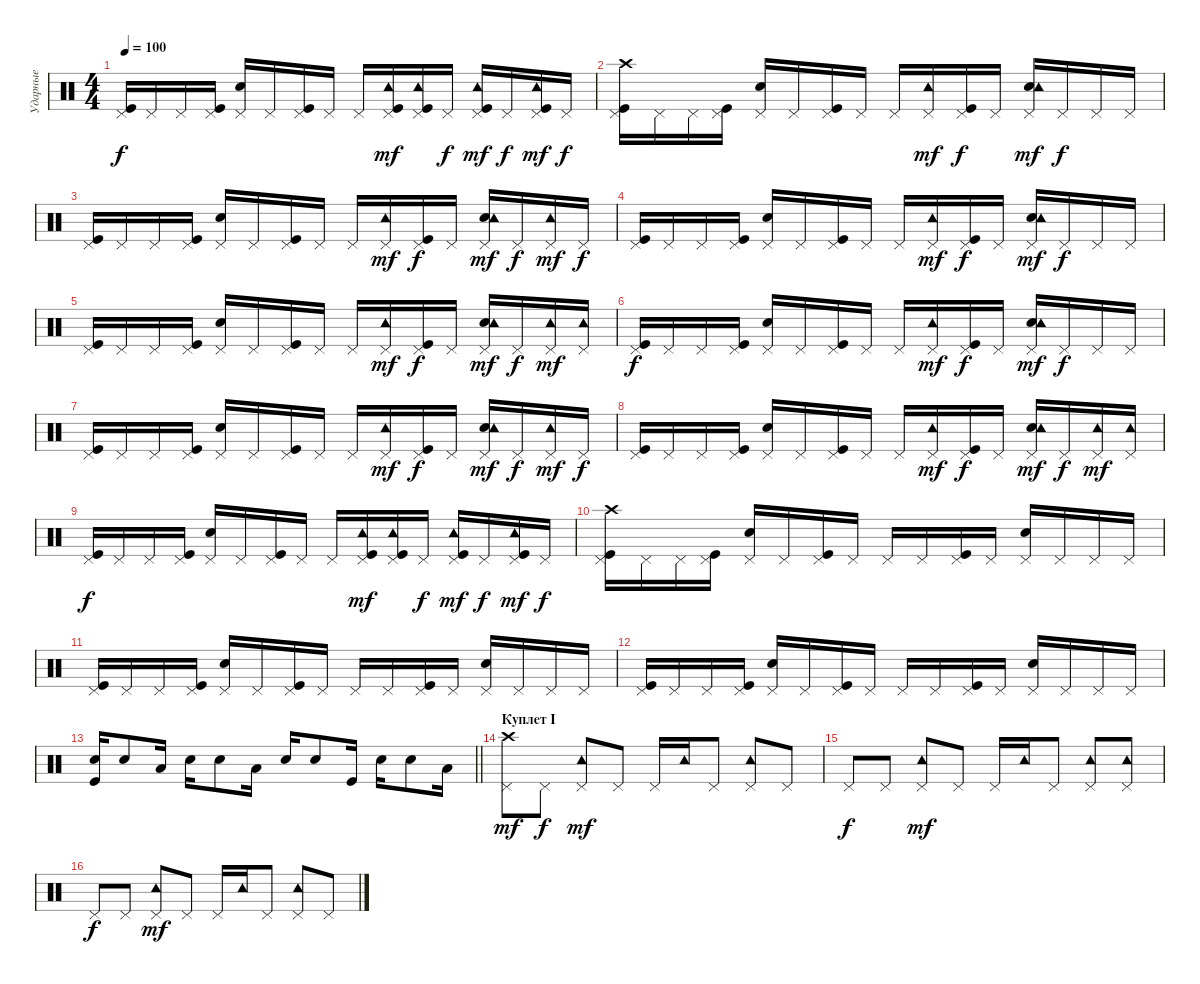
\track ("Ударные" "Ударные") {instrument percussion}
\staff {score}
\articulation defaults
\ts (4 4)
\tempo 100
\clef neutral
\ks c
("Kick (hit)" "Pedal Hi-Hat (hit)").16{dy f} "Pedal Hi-Hat (hit)".16 "Pedal Hi-Hat (hit)".16 ("Kick (hit)" "Pedal Hi-Hat (hit)").16 ("Pedal Hi-Hat (hit)" "Electric Snare (hit)").16 "Pedal Hi-Hat (hit)".16 ("Kick (hit)" "Pedal Hi-Hat (hit)").16 "Pedal Hi-Hat (hit)".16 "Pedal Hi-Hat (hit)".16 ("Kick (hit)" "Pedal Hi-Hat (hit)" "Tambourine (hit)").16{dy mf} ("Kick (hit)" "Pedal Hi-Hat (hit)" "Tambourine (hit)").16 "Pedal Hi-Hat (hit)".16{dy f} ("Kick (hit)" "Pedal Hi-Hat (hit)" "Tambourine (hit)").16{dy mf} "Pedal Hi-Hat (hit)".16{dy f} ("Kick (hit)" "Pedal Hi-Hat (hit)" "Tambourine (hit)").16{dy mf} "Pedal Hi-Hat (hit)".16{dy f} |
("Kick (hit)" "Pedal Hi-Hat (hit)" "Crash high (hit)").16 "Pedal Hi-Hat (hit)".16 "Pedal Hi-Hat (hit)".16 ("Kick (hit)" "Pedal Hi-Hat (hit)").16 ("Pedal Hi-Hat (hit)" "Electric Snare (hit)").16 "Pedal Hi-Hat (hit)".16 ("Kick (hit)" "Pedal Hi-Hat (hit)").16 "Pedal Hi-Hat (hit)".16 "Pedal Hi-Hat (hit)".16 ("Pedal Hi-Hat (hit)" "Tambourine (hit)").16{dy mf} ("Kick (hit)" "Pedal Hi-Hat (hit)").16{dy f} "Pedal Hi-Hat (hit)".16 ("Pedal Hi-Hat (hit)" "Electric Snare (hit)" "Tambourine (hit)").16{dy mf} "Pedal Hi-Hat (hit)".16{dy f} "Pedal Hi-Hat (hit)".16 "Pedal Hi-Hat (hit)".16 |
("Kick (hit)" "Pedal Hi-Hat (hit)").16 "Pedal Hi-Hat (hit)".16 "Pedal Hi-Hat (hit)".16 ("Kick (hit)" "Pedal Hi-Hat (hit)").16 ("Pedal Hi-Hat (hit)" "Electric Snare (hit)").16 "Pedal Hi-Hat (hit)".16 ("Kick (hit)" "Pedal Hi-Hat (hit)").16 "Pedal Hi-Hat (hit)".16 "Pedal Hi-Hat (hit)".16 ("Pedal Hi-Hat (hit)" "Tambourine (hit)").16{dy mf} ("Kick (hit)" "Pedal Hi-Hat (hit)").16{dy f} "Pedal Hi-Hat (hit)".16 ("Pedal Hi-Hat (hit)" "Electric Snare (hit)" "Tambourine (hit)").16{dy mf} "Pedal Hi-Hat (hit)".16{dy f} ("Pedal Hi-Hat (hit)" "Tambourine (hit)").16{dy mf} "Pedal Hi-Hat (hit)".16{dy f} |
("Kick (hit)" "Pedal Hi-Hat (hit)").16 "Pedal Hi-Hat (hit)".16 "Pedal Hi-Hat (hit)".16 ("Kick (hit)" "Pedal Hi-Hat (hit)").16 ("Pedal Hi-Hat (hit)" "Electric Snare (hit)").16 "Pedal Hi-Hat (hit)".16 ("Kick (hit)" "Pedal Hi-Hat (hit)").16 "Pedal Hi-Hat (hit)".16 "Pedal Hi-Hat (hit)".16 ("Pedal Hi-Hat (hit)" "Tambourine (hit)").16{dy mf} ("Kick (hit)" "Pedal Hi-Hat (hit)").16{dy f} "Pedal Hi-Hat (hit)".16 ("Pedal Hi-Hat (hit)" "Electric Snare (hit)" "Tambourine (hit)").16{dy mf} "Pedal Hi-Hat (hit)".16{dy f} "Pedal Hi-Hat (hit)".16 "Pedal Hi-Hat (hit)".16 |
("Kick (hit)" "Pedal Hi-Hat (hit)").16 "Pedal Hi-Hat (hit)".16 "Pedal Hi-Hat (hit)".16 ("Kick (hit)" "Pedal Hi-Hat (hit)").16 ("Pedal Hi-Hat (hit)" "Electric Snare (hit)").16 "Pedal Hi-Hat (hit)".16 ("Kick (hit)" "Pedal Hi-Hat (hit)").16 "Pedal Hi-Hat (hit)".16 "Pedal Hi-Hat (hit)".16 ("Pedal Hi-Hat (hit)" "Tambourine (hit)").16{dy mf} ("Kick (hit)" "Pedal Hi-Hat (hit)").16{dy f} "Pedal Hi-Hat (hit)".16 ("Pedal Hi-Hat (hit)" "Electric Snare (hit)" "Tambourine (hit)").16{dy mf} "Pedal Hi-Hat (hit)".16{dy f} ("Pedal Hi-Hat (hit)" "Tambourine (hit)").16{dy mf} ("Pedal Hi-Hat (hit)" "Tambourine (hit)").16 |
("Kick (hit)" "Pedal Hi-Hat (hit)").16{dy f} "Pedal Hi-Hat (hit)".16 "Pedal Hi-Hat (hit)".16 ("Kick (hit)" "Pedal Hi-Hat (hit)").16 ("Pedal Hi-Hat (hit)" "Electric Snare (hit)").16 "Pedal Hi-Hat (hit)".16 ("Kick (hit)" "Pedal Hi-Hat (hit)").16 "Pedal Hi-Hat (hit)".16 "Pedal Hi-Hat (hit)".16 ("Pedal Hi-Hat (hit)" "Tambourine (hit)").16{dy mf} ("Kick (hit)" "Pedal Hi-Hat (hit)").16{dy f} "Pedal Hi-Hat (hit)".16 ("Pedal Hi-Hat (hit)" "Electric Snare (hit)" "Tambourine (hit)").16{dy mf} "Pedal Hi-Hat (hit)".16{dy f} "Pedal Hi-Hat (hit)".16 "Pedal Hi-Hat (hit)".16 |
("Kick (hit)" "Pedal Hi-Hat (hit)").16 "Pedal Hi-Hat (hit)".16 "Pedal Hi-Hat (hit)".16 ("Kick (hit)" "Pedal Hi-Hat (hit)").16 ("Pedal Hi-Hat (hit)" "Electric Snare (hit)").16 "Pedal Hi-Hat (hit)".16 ("Kick (hit)" "Pedal Hi-Hat (hit)").16 "Pedal Hi-Hat (hit)".16 "Pedal Hi-Hat (hit)".16 ("Pedal Hi-Hat (hit)" "Tambourine (hit)").16{dy mf} ("Kick (hit)" "Pedal Hi-Hat (hit)").16{dy f} "Pedal Hi-Hat (hit)".16 ("Pedal Hi-Hat (hit)" "Electric Snare (hit)" "Tambourine (hit)").16{dy mf} "Pedal Hi-Hat (hit)".16{dy f} ("Pedal Hi-Hat (hit)" "Tambourine (hit)").16{dy mf} "Pedal Hi-Hat (hit)".16{dy f} |
("Kick (hit)" "Pedal Hi-Hat (hit)").16 "Pedal Hi-Hat (hit)".16 "Pedal Hi-Hat (hit)".16 ("Kick (hit)" "Pedal Hi-Hat (hit)").16 ("Pedal Hi-Hat (hit)" "Electric Snare (hit)").16 "Pedal Hi-Hat (hit)".16 ("Kick (hit)" "Pedal Hi-Hat (hit)").16 "Pedal Hi-Hat (hit)".16 "Pedal Hi-Hat (hit)".16 ("Pedal Hi-Hat (hit)" "Tambourine (hit)").16{dy mf} ("Kick (hit)" "Pedal Hi-Hat (hit)").16{dy f} "Pedal Hi-Hat (hit)".16 ("Pedal Hi-Hat (hit)" "Electric Snare (hit)" "Tambourine (hit)").16{dy mf} "Pedal Hi-Hat (hit)".16{dy f} ("Pedal Hi-Hat (hit)" "Tambourine (hit)").16{dy mf} ("Pedal Hi-Hat (hit)" "Tambourine (hit)").16 |
("Kick (hit)" "Pedal Hi-Hat (hit)").16{dy f} "Pedal Hi-Hat (hit)".16 "Pedal Hi-Hat (hit)".16 ("Kick (hit)" "Pedal Hi-Hat (hit)").16 ("Pedal Hi-Hat (hit)" "Electric Snare (hit)").16 "Pedal Hi-Hat (hit)".16 ("Kick (hit)" "Pedal Hi-Hat (hit)").16 "Pedal Hi-Hat (hit)".16 "Pedal Hi-Hat (hit)".16 ("Kick (hit)" "Pedal Hi-Hat (hit)" "Tambourine (hit)").16{dy mf} ("Kick (hit)" "Pedal Hi-Hat (hit)" "Tambourine (hit)").16 "Pedal Hi-Hat (hit)".16{dy f} ("Kick (hit)" "Pedal Hi-Hat (hit)" "Tambourine (hit)").16{dy mf} "Pedal Hi-Hat (hit)".16{dy f} ("Kick (hit)" "Pedal Hi-Hat (hit)" "Tambourine (hit)").16{dy mf} "Pedal Hi-Hat (hit)".16{dy f} |
("Kick (hit)" "Pedal Hi-Hat (hit)" "Crash high (hit)").16 "Pedal Hi-Hat (hit)".16 "Pedal Hi-Hat (hit)".16 ("Kick (hit)" "Pedal Hi-Hat (hit)").16 ("Pedal Hi-Hat (hit)" "Electric Snare (hit)").16 "Pedal Hi-Hat (hit)".16 ("Kick (hit)" "Pedal Hi-Hat (hit)").16 "Pedal Hi-Hat (hit)".16 "Pedal Hi-Hat (hit)".16 "Pedal Hi-Hat (hit)".16 ("Kick (hit)" "Pedal Hi-Hat (hit)").16 "Pedal Hi-Hat (hit)".16 ("Pedal Hi-Hat (hit)" "Electric Snare (hit)").16 "Pedal Hi-Hat (hit)".16 "Pedal Hi-Hat (hit)".16 "Pedal Hi-Hat (hit)".16 |
("Kick (hit)" "Pedal Hi-Hat (hit)").16 "Pedal Hi-Hat (hit)".16 "Pedal Hi-Hat (hit)".16 ("Kick (hit)" "Pedal Hi-Hat (hit)").16 ("Pedal Hi-Hat (hit)" "Electric Snare (hit)").16 "Pedal Hi-Hat (hit)".16 ("Kick (hit)" "Pedal Hi-Hat (hit)").16 "Pedal Hi-Hat (hit)".16 "Pedal Hi-Hat (hit)".16 "Pedal Hi-Hat (hit)".16 ("Kick (hit)" "Pedal Hi-Hat (hit)").16 "Pedal Hi-Hat (hit)".16 ("Pedal Hi-Hat (hit)" "Electric Snare (hit)").16 "Pedal Hi-Hat (hit)".16 "Pedal Hi-Hat (hit)".16 "Pedal Hi-Hat (hit)".16 |
("Kick (hit)" "Pedal Hi-Hat (hit)").16 "Pedal Hi-Hat (hit)".16 "Pedal Hi-Hat (hit)".16 ("Kick (hit)" "Pedal Hi-Hat (hit)").16 ("Pedal Hi-Hat (hit)" "Electric Snare (hit)").16 "Pedal Hi-Hat (hit)".16 ("Kick (hit)" "Pedal Hi-Hat (hit)").16 "Pedal Hi-Hat (hit)".16 "Pedal Hi-Hat (hit)".16 "Pedal Hi-Hat (hit)".16 ("Kick (hit)" "Pedal Hi-Hat (hit)").16 "Pedal Hi-Hat (hit)".16 ("Pedal Hi-Hat (hit)" "Electric Snare (hit)").16 "Pedal Hi-Hat (hit)".16 "Pedal Hi-Hat (hit)".16 "Pedal Hi-Hat (hit)".16 |
\barLineRight lightlight
("Kick (hit)" "Electric Snare (hit)").16 "Electric Snare (hit)".8 "Low Tom (hit)".16 "Electric Snare (hit)".16 "Electric Snare (hit)".8 "Low Tom (hit)".16 "Electric Snare (hit)".16 "Electric Snare (hit)".8 "Kick (hit)".16 "Electric Snare (hit)".16 "Electric Snare (hit)".8 "Low Tom (hit)".16 |
\section ("" "Куплет I")
("Pedal Hi-Hat (hit)" "Crash high (hit)").8{dy mf} "Pedal Hi-Hat (hit)".8{dy f} ("Tambourine (hit)" "Pedal Hi-Hat (hit)").8{dy mf} "Pedal Hi-Hat (hit)".8 "Pedal Hi-Hat (hit)".16 "Tambourine (hit)".16 "Pedal Hi-Hat (hit)".8 ("Tambourine (hit)" "Pedal Hi-Hat (hit)").8 "Pedal Hi-Hat (hit)".8 |
"Pedal Hi-Hat (hit)".8{dy f} "Pedal Hi-Hat (hit)".8 ("Tambourine (hit)" "Pedal Hi-Hat (hit)").8{dy mf} "Pedal Hi-Hat (hit)".8 "Pedal Hi-Hat (hit)".16 "Tambourine (hit)".16 "Pedal Hi-Hat (hit)".8 ("Tambourine (hit)" "Pedal Hi-Hat (hit)").8 ("Tambourine (hit)" "Pedal Hi-Hat (hit)").8 |
"Pedal Hi-Hat (hit)".8{dy f} "Pedal Hi-Hat (hit)".8 ("Tambourine (hit)" "Pedal Hi-Hat (hit)").8{dy mf} "Pedal Hi-Hat (hit)".8 "Pedal Hi-Hat (hit)".16 "Tambourine (hit)".16 "Pedal Hi-Hat (hit)".8 ("Tambourine (hit)" "Pedal Hi-Hat (hit)").8 "Pedal Hi-Hat (hit)".8
